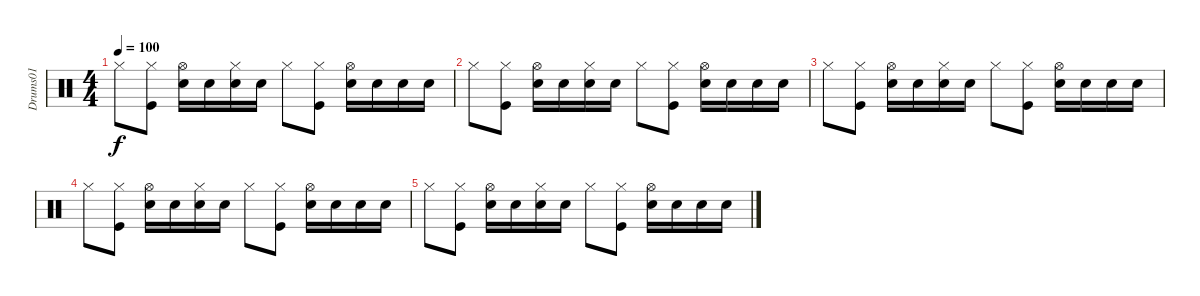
\track ("Drums01" "Drums01") {instrument percussion}
\staff {score}
\articulation defaults
\ts (4 4)
\tempo 100
\clef neutral
\ks c "Hi-Hat (closed)".8{dy f}
("Hi-Hat (closed)" "Kick (hit)").8 ("Hi-Hat (open)" "Snare (hit) 2").16 "Snare (hit) 2".16 ("Hi-Hat (closed)" "Snare (hit) 2").16 "Snare (hit) 2".16 "Hi-Hat (closed)".8 ("Hi-Hat (closed)" "Kick (hit)").8 ("Hi-Hat (open)" "Snare (hit) 2").16 "Snare (hit) 2".16 "Snare (hit) 2".16 "Snare (hit) 2".16 |
"Hi-Hat (closed)".8 ("Hi-Hat (closed)" "Kick (hit)").8 ("Hi-Hat (open)" "Snare (hit) 2").16 "Snare (hit) 2".16 ("Hi-Hat (closed)" "Snare (hit) 2").16 "Snare (hit) 2".16 "Hi-Hat (closed)".8 ("Hi-Hat (closed)" "Kick (hit)").8 ("Hi-Hat (open)" "Snare (hit) 2").16 "Snare (hit) 2".16 "Snare (hit) 2".16 "Snare (hit) 2".16 |
"Hi-Hat (closed)".8 ("Hi-Hat (closed)" "Kick (hit)").8 ("Hi-Hat (open)" "Snare (hit) 2").16 "Snare (hit) 2".16 ("Hi-Hat (closed)" "Snare (hit) 2").16 "Snare (hit) 2".16 "Hi-Hat (closed)".8 ("Hi-Hat (closed)" "Kick (hit)").8 ("Hi-Hat (open)" "Snare (hit) 2").16 "Snare (hit) 2".16 "Snare (hit) 2".16 "Snare (hit) 2".16 |
"Hi-Hat (closed)".8 ("Hi-Hat (closed)" "Kick (hit)").8 ("Hi-Hat (open)" "Snare (hit) 2").16 "Snare (hit) 2".16 ("Hi-Hat (closed)" "Snare (hit) 2").16 "Snare (hit) 2".16 "Hi-Hat (closed)".8 ("Hi-Hat (closed)" "Kick (hit)").8 ("Hi-Hat (open)" "Snare (hit) 2").16 "Snare (hit) 2".16 "Snare (hit) 2".16 "Snare (hit) 2".16 |
"Hi-Hat (closed)".8 ("Hi-Hat (closed)" "Kick (hit)").8 ("Hi-Hat (open)" "Snare (hit) 2").16 "Snare (hit) 2".16 ("Hi-Hat (closed)" "Snare (hit) 2").16 "Snare (hit) 2".16 "Hi-Hat (closed)".8 ("Hi-Hat (closed)" "Kick (hit)").8 ("Hi-Hat (open)" "Snare (hit) 2").16 "Snare (hit) 2".16 "Snare (hit) 2".16 "Snare (hit) 2".16
